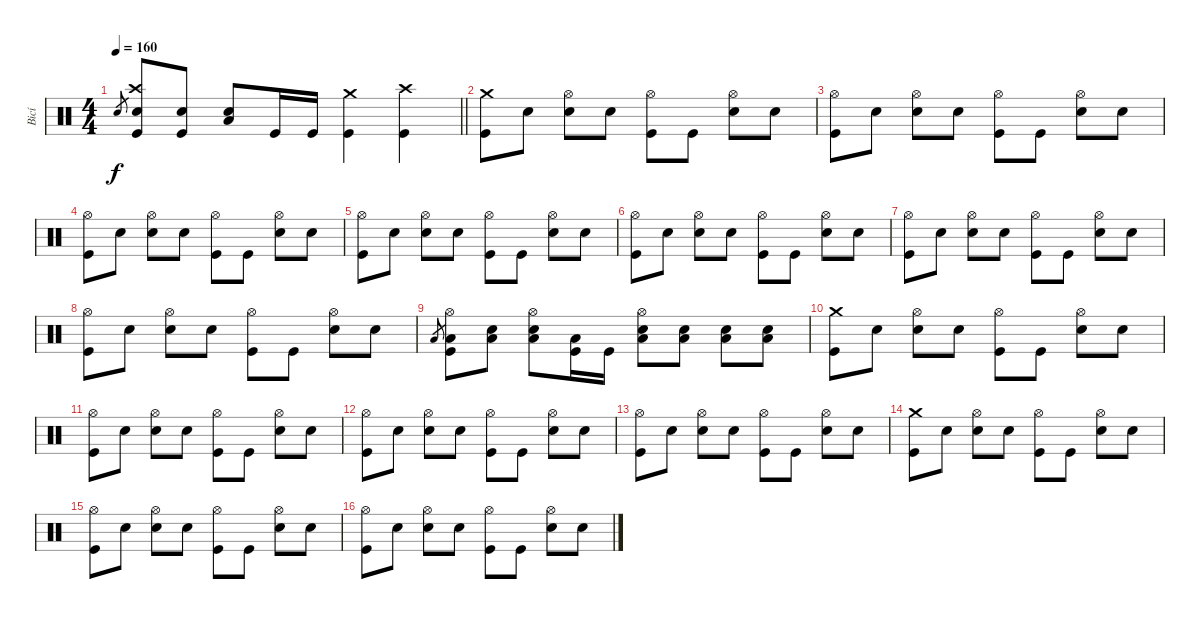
\track ("Bicí" "Bicí") {instrument percussion}
\staff {score}
\articulation defaults
\ts (4 4)
\tempo 160
\clef neutral
\barLineRight lightlight
\ks c "Electric Snare (hit)".8{gr dy f}
("Crash high (hit)" "Electric Snare (hit)" "Kick (hit)").8 ("Electric Snare (hit)" "Kick (hit)").8 ("Low Tom (hit)" "Electric Snare (hit)").8 "Kick (hit)".16 "Kick (hit)".16 ("Crash medium (hit)" "Kick (hit)").4 ("Crash high (hit)" "Kick (hit)").4 |
("Crash medium (hit)" "Kick (hit)").8 "Snare (hit)".8 ("Hi-Hat (open)" "Electric Snare (hit)").8 "Snare (hit)".8 ("Hi-Hat (open)" "Kick (hit)").8 "Kick (hit)".8 ("Hi-Hat (open)" "Electric Snare (hit)").8 "Snare (hit)".8 |
("Hi-Hat (open)" "Kick (hit)").8 "Snare (hit)".8 ("Hi-Hat (open)" "Electric Snare (hit)").8 "Snare (hit)".8 ("Hi-Hat (open)" "Kick (hit)").8 "Kick (hit)".8 ("Hi-Hat (open)" "Electric Snare (hit)").8 "Snare (hit)".8 |
("Hi-Hat (open)" "Kick (hit)").8 "Snare (hit)".8 ("Hi-Hat (open)" "Electric Snare (hit)").8 "Snare (hit)".8 ("Hi-Hat (open)" "Kick (hit)").8 "Kick (hit)".8 ("Hi-Hat (open)" "Electric Snare (hit)").8 "Snare (hit)".8 |
("Hi-Hat (open)" "Kick (hit)").8 "Snare (hit)".8 ("Hi-Hat (open)" "Electric Snare (hit)").8 "Snare (hit)".8 ("Hi-Hat (open)" "Kick (hit)").8 "Kick (hit)".8 ("Hi-Hat (open)" "Electric Snare (hit)").8 "Snare (hit)".8 |
("Hi-Hat (open)" "Kick (hit)").8 "Snare (hit)".8 ("Hi-Hat (open)" "Electric Snare (hit)").8 "Snare (hit)".8 ("Hi-Hat (open)" "Kick (hit)").8 "Kick (hit)".8 ("Hi-Hat (open)" "Electric Snare (hit)").8 "Snare (hit)".8 |
("Hi-Hat (open)" "Kick (hit)").8 "Snare (hit)".8 ("Hi-Hat (open)" "Electric Snare (hit)").8 "Snare (hit)".8 ("Hi-Hat (open)" "Kick (hit)").8 "Kick (hit)".8 ("Hi-Hat (open)" "Electric Snare (hit)").8 "Snare (hit)".8 |
("Hi-Hat (open)" "Kick (hit)").8 "Snare (hit)".8 ("Hi-Hat (open)" "Electric Snare (hit)").8 "Snare (hit)".8 ("Hi-Hat (open)" "Kick (hit)").8 "Kick (hit)".8 ("Hi-Hat (open)" "Electric Snare (hit)").8 "Snare (hit)".8 |
"Low Tom (hit)".8{gr} ("Hi-Hat (open)" "Low Tom (hit)" "Kick (hit)").8 ("Low Tom (hit)" "Snare (hit)").8 ("Hi-Hat (open)" "Low Tom (hit)" "Electric Snare (hit)").8 ("Low Tom (hit)" "Kick (hit)").16 "Kick (hit)".16 ("Hi-Hat (open)" "Low Tom (hit)" "Electric Snare (hit)").8 ("Low Tom (hit)" "Electric Snare (hit)").8 ("Low Tom (hit)" "Electric Snare (hit)").8 ("Low Tom (hit)" "Electric Snare (hit)").8 |
("Crash medium (hit)" "Kick (hit)").8 "Snare (hit)".8 ("Hi-Hat (open)" "Electric Snare (hit)").8 "Snare (hit)".8 ("Hi-Hat (open)" "Kick (hit)").8 "Kick (hit)".8 ("Hi-Hat (open)" "Electric Snare (hit)").8 "Snare (hit)".8 |
("Hi-Hat (open)" "Kick (hit)").8 "Snare (hit)".8 ("Hi-Hat (open)" "Electric Snare (hit)").8 "Snare (hit)".8 ("Hi-Hat (open)" "Kick (hit)").8 "Kick (hit)".8 ("Hi-Hat (open)" "Electric Snare (hit)").8 "Snare (hit)".8 |
("Hi-Hat (open)" "Kick (hit)").8 "Snare (hit)".8 ("Hi-Hat (open)" "Electric Snare (hit)").8 "Snare (hit)".8 ("Hi-Hat (open)" "Kick (hit)").8 "Kick (hit)".8 ("Hi-Hat (open)" "Electric Snare (hit)").8 "Snare (hit)".8 |
("Hi-Hat (open)" "Kick (hit)").8 "Snare (hit)".8 ("Hi-Hat (open)" "Electric Snare (hit)").8 "Snare (hit)".8 ("Hi-Hat (open)" "Kick (hit)").8 "Kick (hit)".8 ("Hi-Hat (open)" "Electric Snare (hit)").8 "Snare (hit)".8 |
("Crash medium (hit)" "Kick (hit)").8 "Snare (hit)".8 ("Hi-Hat (open)" "Electric Snare (hit)").8 "Snare (hit)".8 ("Hi-Hat (open)" "Kick (hit)").8 "Kick (hit)".8 ("Hi-Hat (open)" "Electric Snare (hit)").8 "Snare (hit)".8 |
("Hi-Hat (open)" "Kick (hit)").8 "Snare (hit)".8 ("Hi-Hat (open)" "Electric Snare (hit)").8 "Snare (hit)".8 ("Hi-Hat (open)" "Kick (hit)").8 "Kick (hit)".8 ("Hi-Hat (open)" "Electric Snare (hit)").8 "Snare (hit)".8 |
("Hi-Hat (open)" "Kick (hit)").8 "Snare (hit)".8 ("Hi-Hat (open)" "Electric Snare (hit)").8 "Snare (hit)".8 ("Hi-Hat (open)" "Kick (hit)").8 "Kick (hit)".8 ("Hi-Hat (open)" "Electric Snare (hit)").8 "Snare (hit)".8
